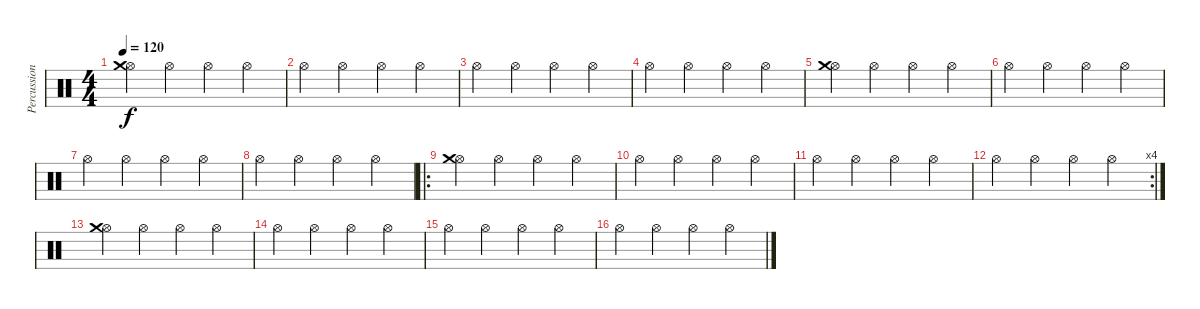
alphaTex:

\track ("Percussions" "Percussion") {instrument percussion}
\staff {score}
\articulation defaults
\ts (4 4)
\tempo 120
\clef neutral
\ks c
("Hi-Hat (open)" "Crash medium (hit)").4{dy f} "Hi-Hat (open)".4 "Hi-Hat (open)".4 "Hi-Hat (open)".4 |
"Hi-Hat (open)".4 "Hi-Hat (open)".4 "Hi-Hat (open)".4 "Hi-Hat (open)".4 |
"Hi-Hat (open)".4 "Hi-Hat (open)".4 "Hi-Hat (open)".4 "Hi-Hat (open)".4 |
"Hi-Hat (open)".4 "Hi-Hat (open)".4 "Hi-Hat (open)".4 "Hi-Hat (open)".4 |
("Hi-Hat (open)" "Crash medium (hit)").4 "Hi-Hat (open)".4 "Hi-Hat (open)".4 "Hi-Hat (open)".4 |
"Hi-Hat (open)".4 "Hi-Hat (open)".4 "Hi-Hat (open)".4 "Hi-Hat (open)".4 |
"Hi-Hat (open)".4 "Hi-Hat (open)".4 "Hi-Hat (open)".4 "Hi-Hat (open)".4 |
"Hi-Hat (open)".4 "Hi-Hat (open)".4 "Hi-Hat (open)".4 "Hi-Hat (open)".4 |
\ro
("Hi-Hat (open)" "Crash medium (hit)").4 "Hi-Hat (open)".4 "Hi-Hat (open)".4 "Hi-Hat (open)".4 |
"Hi-Hat (open)".4 "Hi-Hat (open)".4 "Hi-Hat (open)".4 "Hi-Hat (open)".4 |
"Hi-Hat (open)".4 "Hi-Hat (open)".4 "Hi-Hat (open)".4 "Hi-Hat (open)".4 |
\rc 4 "Hi-Hat (open)".4 "Hi-Hat (open)".4 "Hi-Hat (open)".4 "Hi-Hat (open)".4
|
("Hi-Hat (open)" "Crash medium (hit)").4 "Hi-Hat (open)".4 "Hi-Hat (open)".4 "Hi-Hat (open)".4 |
"Hi-Hat (open)".4 "Hi-Hat (open)".4 "Hi-Hat (open)".4 "Hi-Hat (open)".4 |
"Hi-Hat (open)".4 "Hi-Hat (open)".4 "Hi-Hat (open)".4 "Hi-Hat (open)".4 |
"Hi-Hat (open)".4 "Hi-Hat (open)".4 "Hi-Hat (open)".4 "Hi-Hat (open)".4
